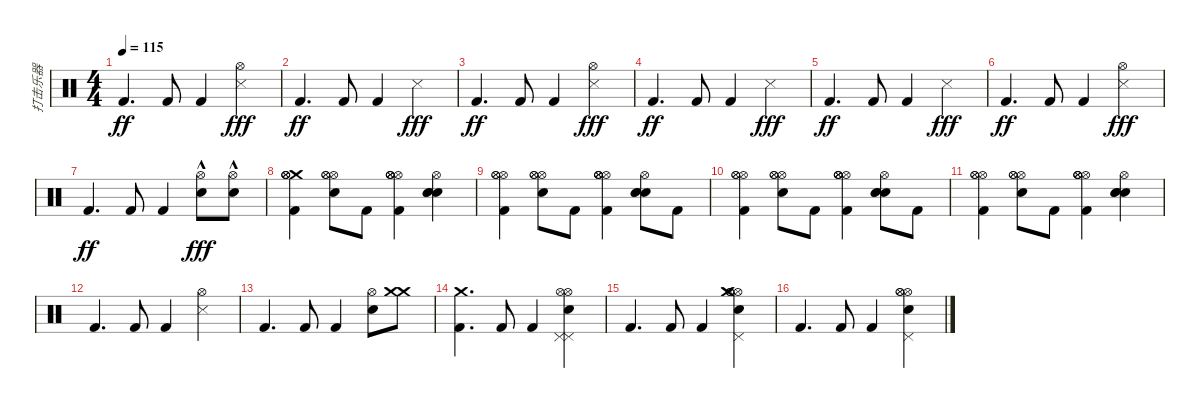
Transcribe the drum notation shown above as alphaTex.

\track ("打击乐器" "打击乐器") {instrument percussion}
\staff {score}
\articulation defaults
\ts (4 4)
\tempo 115
\clef neutral
\ks c "Kick (hit) 2".4{d dy ff} "Kick (hit) 2".8 "Kick (hit) 2".4
("Snare (side stick) 3" "Hi-Hat (open)").4{dy fff} |
"Kick (hit) 2".4{d dy ff} "Kick (hit) 2".8 "Kick (hit) 2".4 "Snare (side stick) 3".4{dy fff} |
"Kick (hit) 2".4{d dy ff} "Kick (hit) 2".8 "Kick (hit) 2".4 ("Snare (side stick) 3" "Hi-Hat (open)").4{dy fff} |
"Kick (hit) 2".4{d dy ff} "Kick (hit) 2".8 "Kick (hit) 2".4 "Snare (side stick) 3".4{dy fff} |
"Kick (hit) 2".4{d dy ff} "Kick (hit) 2".8 "Kick (hit) 2".4 "Snare (side stick) 3".4{dy fff} |
"Kick (hit) 2".4{d dy ff} "Kick (hit) 2".8 "Kick (hit) 2".4 ("Snare (side stick) 3" "Hi-Hat (open)").4{dy fff} |
"Kick (hit) 2".4{d dy ff} "Kick (hit) 2".8 "Kick (hit) 2".4 ("Hi-Hat (open)" "Electric Snare (hit)"{hac}).8{dy fff} ("Hi-Hat (open)" "Electric Snare (hit)"{hac}).8 |
("Crash medium (hit)" "Hi-Hat (open)" "Hi-Hat (open)" "Hi-Hat (open)" "Kick (hit) 2").4 ("Hi-Hat (open)" "Hi-Hat (open)" "Hi-Hat (open)" "Electric Snare (hit)").8 "Kick (hit) 2".8 ("Hi-Hat (open)" "Hi-Hat (open)" "Hi-Hat (open)" "Hi-Hat (open)" "Kick (hit) 2").4 ("Electric Snare (hit)" "Electric Snare (hit)" "Electric Snare (hit)" "Hi-Hat (open)").4 |
("Hi-Hat (open)" "Hi-Hat (open)" "Hi-Hat (open)" "Kick (hit) 2").4 ("Hi-Hat (open)" "Hi-Hat (open)" "Hi-Hat (open)" "Electric Snare (hit)").8 "Kick (hit) 2".8 ("Hi-Hat (open)" "Hi-Hat (open)" "Hi-Hat (open)" "Hi-Hat (open)" "Kick (hit) 2").4 ("Electric Snare (hit)" "Electric Snare (hit)" "Electric Snare (hit)" "Hi-Hat (open)").8 "Kick (hit) 2".8 |
("Hi-Hat (open)" "Hi-Hat (open)" "Hi-Hat (open)" "Kick (hit) 2").4 ("Hi-Hat (open)" "Hi-Hat (open)" "Hi-Hat (open)" "Electric Snare (hit)").8 "Kick (hit) 2".8 ("Hi-Hat (open)" "Hi-Hat (open)" "Hi-Hat (open)" "Hi-Hat (open)" "Kick (hit) 2").4 ("Electric Snare (hit)" "Electric Snare (hit)" "Electric Snare (hit)" "Hi-Hat (open)").8 "Kick (hit) 2".8 |
("Hi-Hat (open)" "Hi-Hat (open)" "Hi-Hat (open)" "Kick (hit) 2").4 ("Hi-Hat (open)" "Hi-Hat (open)" "Hi-Hat (open)" "Electric Snare (hit)").8 "Kick (hit) 2".8 ("Hi-Hat (open)" "Hi-Hat (open)" "Hi-Hat (open)" "Hi-Hat (open)" "Kick (hit) 2").4 ("Electric Snare (hit)" "Electric Snare (hit)" "Electric Snare (hit)" "Hi-Hat (open)").4 |
"Kick (hit) 2".4{d} "Kick (hit) 2".8 "Kick (hit) 2".4 ("Snare (side stick) 3" "Hi-Hat (open)").4 |
"Kick (hit) 2".4{d} "Kick (hit) 2".8 "Kick (hit) 2".4 ("Electric Snare (hit)" "Hi-Hat (open)").8 ("Crash medium (hit)" "Crash medium (hit)").8 |
("Crash medium (hit)" "Kick (hit) 2").4{d} "Kick (hit) 2".8 "Kick (hit) 2".4 ("Pedal Hi-Hat (hit)" "Electric Snare (hit)" "Hi-Hat (open)" "Pedal Hi-Hat (hit)" "Hi-Hat (open)").4 |
"Kick (hit) 2".4{d} "Kick (hit) 2".8 "Kick (hit) 2".4 ("Hi-Hat (open)" "Hi-Hat (open)" "Hi-Hat (open)" "Electric Snare (hit)" "Pedal Hi-Hat (hit)" "Crash medium (hit)").4 |
"Kick (hit) 2".4{d} "Kick (hit) 2".8 "Kick (hit) 2".4 ("Hi-Hat (open)" "Hi-Hat (open)" "Hi-Hat (open)" "Electric Snare (hit)" "Pedal Hi-Hat (hit)").4
